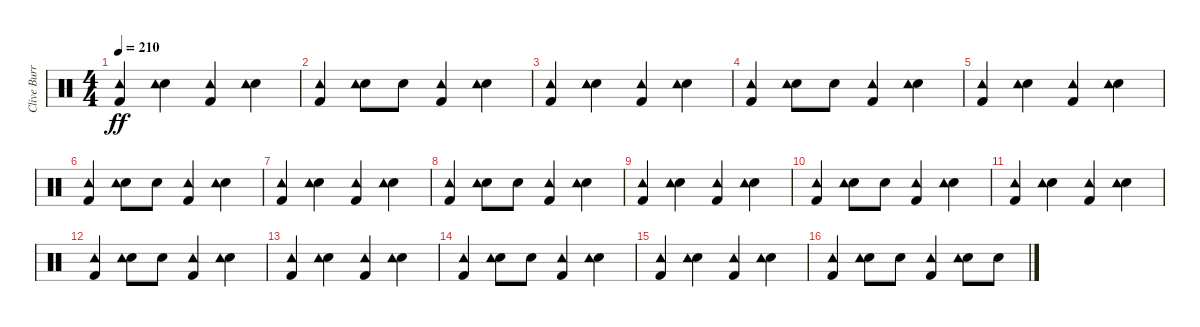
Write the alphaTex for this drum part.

\track ("Clive Burr" "Clive Burr") {instrument percussion}
\staff {score}
\articulation defaults
\ts (4 4)
\tempo 210
\clef neutral
\ks c
("Kick (hit) 2" "Tambourine (hit)").4{dy ff} ("Snare (hit) 2" "Tambourine (hit)").4 ("Kick (hit) 2" "Tambourine (hit)").4 ("Snare (hit) 2" "Tambourine (hit)").4 |
("Kick (hit) 2" "Tambourine (hit)").4 ("Snare (hit) 2" "Tambourine (hit)").8 "Snare (hit) 2".8 ("Kick (hit) 2" "Tambourine (hit)").4 ("Snare (hit) 2" "Tambourine (hit)").4 |
("Kick (hit) 2" "Tambourine (hit)").4 ("Snare (hit) 2" "Tambourine (hit)").4 ("Kick (hit) 2" "Tambourine (hit)").4 ("Snare (hit) 2" "Tambourine (hit)").4 |
("Kick (hit) 2" "Tambourine (hit)").4 ("Snare (hit) 2" "Tambourine (hit)").8 "Snare (hit) 2".8 ("Kick (hit) 2" "Tambourine (hit)").4 ("Snare (hit) 2" "Tambourine (hit)").4 |
("Kick (hit) 2" "Tambourine (hit)").4 ("Snare (hit) 2" "Tambourine (hit)").4 ("Kick (hit) 2" "Tambourine (hit)").4 ("Snare (hit) 2" "Tambourine (hit)").4 |
("Kick (hit) 2" "Tambourine (hit)").4 ("Snare (hit) 2" "Tambourine (hit)").8 "Snare (hit) 2".8 ("Kick (hit) 2" "Tambourine (hit)").4 ("Snare (hit) 2" "Tambourine (hit)").4 |
("Kick (hit) 2" "Tambourine (hit)").4 ("Snare (hit) 2" "Tambourine (hit)").4 ("Kick (hit) 2" "Tambourine (hit)").4 ("Snare (hit) 2" "Tambourine (hit)").4 |
("Kick (hit) 2" "Tambourine (hit)").4 ("Snare (hit) 2" "Tambourine (hit)").8 "Snare (hit) 2".8 ("Kick (hit) 2" "Tambourine (hit)").4 ("Snare (hit) 2" "Tambourine (hit)").4 |
("Kick (hit) 2" "Tambourine (hit)").4 ("Snare (hit) 2" "Tambourine (hit)").4 ("Kick (hit) 2" "Tambourine (hit)").4 ("Snare (hit) 2" "Tambourine (hit)").4 |
("Kick (hit) 2" "Tambourine (hit)").4 ("Snare (hit) 2" "Tambourine (hit)").8 "Snare (hit) 2".8 ("Kick (hit) 2" "Tambourine (hit)").4 ("Snare (hit) 2" "Tambourine (hit)").4 |
("Kick (hit) 2" "Tambourine (hit)").4 ("Snare (hit) 2" "Tambourine (hit)").4 ("Kick (hit) 2" "Tambourine (hit)").4 ("Snare (hit) 2" "Tambourine (hit)").4 |
("Kick (hit) 2" "Tambourine (hit)").4 ("Snare (hit) 2" "Tambourine (hit)").8 "Snare (hit) 2".8 ("Kick (hit) 2" "Tambourine (hit)").4 ("Snare (hit) 2" "Tambourine (hit)").4 |
("Kick (hit) 2" "Tambourine (hit)").4 ("Snare (hit) 2" "Tambourine (hit)").4 ("Kick (hit) 2" "Tambourine (hit)").4 ("Snare (hit) 2" "Tambourine (hit)").4 |
("Kick (hit) 2" "Tambourine (hit)").4 ("Snare (hit) 2" "Tambourine (hit)").8 "Snare (hit) 2".8 ("Kick (hit) 2" "Tambourine (hit)").4 ("Snare (hit) 2" "Tambourine (hit)").4 |
("Kick (hit) 2" "Tambourine (hit)").4 ("Snare (hit) 2" "Tambourine (hit)").4 ("Kick (hit) 2" "Tambourine (hit)").4 ("Snare (hit) 2" "Tambourine (hit)").4 |
("Kick (hit) 2" "Tambourine (hit)").4 ("Snare (hit) 2" "Tambourine (hit)").8 "Snare (hit) 2".8 ("Kick (hit) 2" "Tambourine (hit)").4 ("Snare (hit) 2" "Tambourine (hit)").8 "Snare (hit) 2".8
